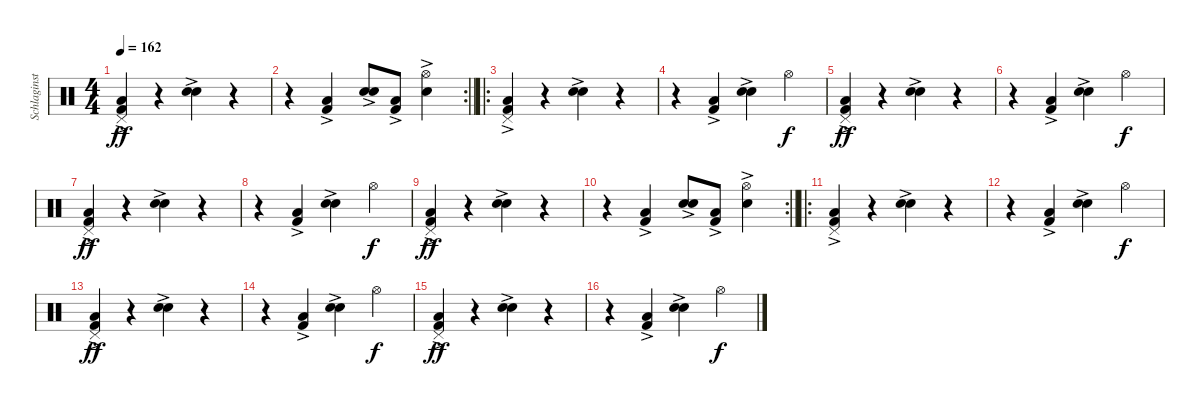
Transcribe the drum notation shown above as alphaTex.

\track ("Schlaginstrumente - Auswahl" "Schlaginst") {instrument percussion}
\staff {score}
\articulation defaults
\ts (4 4)
\tempo 162
\clef neutral
\ks c
("Pedal Hi-Hat (hit)" "Kick (hit) 2"{ac} "Low Floor Tom (hit)").4{dy ff} r.4 ("Hand Clap (hit)" "Electric Snare (hit)"{ac}).4 r.4 |
\rc 2
\barLineRight lightlight
r.4 ("Low Floor Tom (hit)" "Kick (hit) 2"{ac}).4 ("Hand Clap (hit)" "Electric Snare (hit)"{ac}).8 ("Low Floor Tom (hit)" "Kick (hit) 2"{ac}).8 ("Hi-Hat (open)" "Electric Snare (hit)"{ac}).4 |
\ro
("Pedal Hi-Hat (hit)" "Low Floor Tom (hit)" "Kick (hit) 2"{ac}).4 r.4 ("Hand Clap (hit)" "Electric Snare (hit)"{ac}).4 r.4 |
r.4 ("Low Floor Tom (hit)" "Kick (hit) 2"{ac}).4 ("Hand Clap (hit)" "Electric Snare (hit)"{ac}).4 "Hi-Hat (open)".4{dy f} |
("Pedal Hi-Hat (hit)" "Low Floor Tom (hit)" "Kick (hit) 2"{ac}).4{dy ff} r.4 ("Hand Clap (hit)" "Electric Snare (hit)"{ac}).4 r.4 |
r.4 ("Low Floor Tom (hit)" "Kick (hit) 2"{ac}).4 ("Hand Clap (hit)" "Electric Snare (hit)"{ac}).4 "Hi-Hat (open)".4{dy f} |
("Pedal Hi-Hat (hit)" "Low Floor Tom (hit)" "Kick (hit) 2"{ac}).4{dy ff} r.4 ("Hand Clap (hit)" "Electric Snare (hit)"{ac}).4 r.4 |
r.4 ("Low Floor Tom (hit)" "Kick (hit) 2"{ac}).4 ("Hand Clap (hit)" "Electric Snare (hit)"{ac}).4 "Hi-Hat (open)".4{dy f} |
("Pedal Hi-Hat (hit)" "Kick (hit) 2"{ac} "Low Floor Tom (hit)").4{dy ff} r.4 ("Hand Clap (hit)" "Electric Snare (hit)"{ac}).4 r.4 |
\rc 2
\barLineRight lightlight
r.4 ("Low Floor Tom (hit)" "Kick (hit) 2"{ac}).4 ("Hand Clap (hit)" "Electric Snare (hit)"{ac}).8 ("Low Floor Tom (hit)" "Kick (hit) 2"{ac}).8 ("Hi-Hat (open)" "Electric Snare (hit)"{ac}).4 |
\ro
("Pedal Hi-Hat (hit)" "Low Floor Tom (hit)" "Kick (hit) 2"{ac}).4 r.4 ("Hand Clap (hit)" "Electric Snare (hit)"{ac}).4 r.4 |
r.4 ("Low Floor Tom (hit)" "Kick (hit) 2"{ac}).4 ("Hand Clap (hit)" "Electric Snare (hit)"{ac}).4 "Hi-Hat (open)".4{dy f} |
("Pedal Hi-Hat (hit)" "Low Floor Tom (hit)" "Kick (hit) 2"{ac}).4{dy ff} r.4 ("Hand Clap (hit)" "Electric Snare (hit)"{ac}).4 r.4 |
r.4 ("Low Floor Tom (hit)" "Kick (hit) 2"{ac}).4 ("Hand Clap (hit)" "Electric Snare (hit)"{ac}).4 "Hi-Hat (open)".4{dy f} |
("Pedal Hi-Hat (hit)" "Low Floor Tom (hit)" "Kick (hit) 2"{ac}).4{dy ff} r.4 ("Hand Clap (hit)" "Electric Snare (hit)"{ac}).4 r.4 |
r.4 ("Low Floor Tom (hit)" "Kick (hit) 2"{ac}).4 ("Hand Clap (hit)" "Electric Snare (hit)"{ac}).4 "Hi-Hat (open)".4{dy f}
